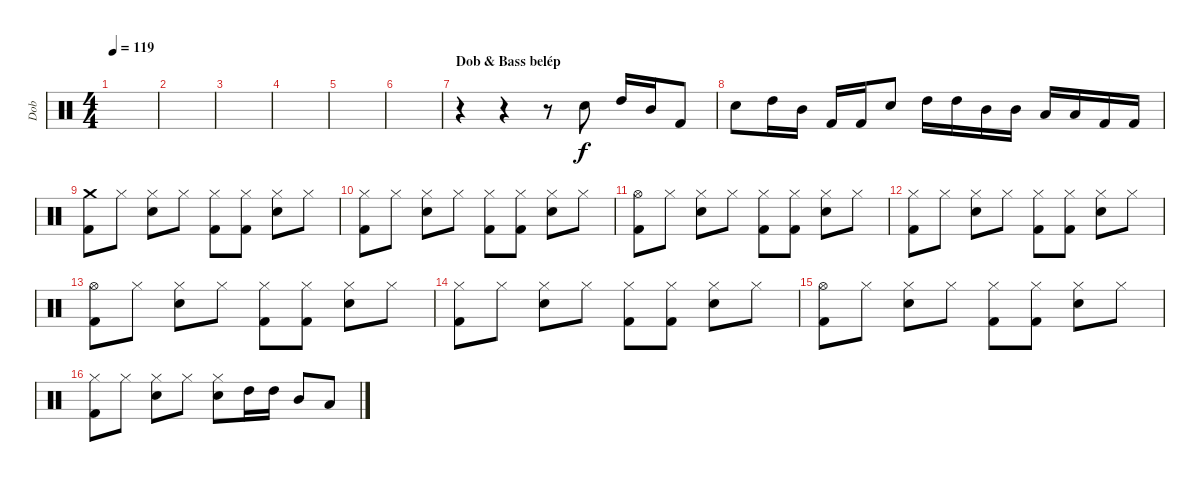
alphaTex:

\track ("Dob" "Dob") {instrument percussion}
\staff {score}
\articulation defaults
\ts (4 4)
\tempo 119
\clef neutral
\ks c
|
|
|
|
|
|
\section ("" "Dob & Bass belép")
r.4 r.4 r.8 "Snare (hit) 2".8 "High Tom (hit)".16 "Mid Tom (hit)".16 "Kick (hit) 2".8 |
"Snare (hit) 2".8 "High Tom (hit)".16 "Mid Tom (hit)".16 "Kick (hit) 2".16 "Kick (hit) 2".16 "Snare (hit) 2".8 "High Tom (hit)".16 "High Tom (hit)".16 "Mid Tom (hit)".16 "Mid Tom (hit)".16 "Low Tom (hit)".16 "Low Tom (hit)".16 "Kick (hit) 2".16 "Kick (hit) 2".16 |
("Crash medium (hit)" "Kick (hit) 2").8 "Hi-Hat (closed)".8 ("Hi-Hat (closed)" "Snare (hit) 2").8 "Hi-Hat (closed)".8 ("Hi-Hat (closed)" "Kick (hit) 2").8 ("Hi-Hat (closed)" "Kick (hit) 2").8 ("Hi-Hat (closed)" "Snare (hit) 2").8 "Hi-Hat (closed)".8 |
("Hi-Hat (closed)" "Kick (hit) 2").8 "Hi-Hat (closed)".8 ("Hi-Hat (closed)" "Snare (hit) 2").8 "Hi-Hat (closed)".8 ("Hi-Hat (closed)" "Kick (hit) 2").8 ("Hi-Hat (closed)" "Kick (hit) 2").8 ("Hi-Hat (closed)" "Snare (hit) 2").8 "Hi-Hat (closed)".8 |
("Hi-Hat (open)" "Kick (hit) 2").8 "Hi-Hat (closed)".8 ("Hi-Hat (closed)" "Snare (hit) 2").8 "Hi-Hat (closed)".8 ("Hi-Hat (closed)" "Kick (hit) 2").8 ("Hi-Hat (closed)" "Kick (hit) 2").8 ("Hi-Hat (closed)" "Snare (hit) 2").8 "Hi-Hat (closed)".8 |
("Hi-Hat (closed)" "Kick (hit) 2").8 "Hi-Hat (closed)".8 ("Hi-Hat (closed)" "Snare (hit) 2").8 "Hi-Hat (closed)".8 ("Hi-Hat (closed)" "Kick (hit) 2").8 ("Hi-Hat (closed)" "Kick (hit) 2").8 ("Hi-Hat (closed)" "Snare (hit) 2").8 "Hi-Hat (closed)".8 |
("Hi-Hat (open)" "Kick (hit) 2").8 "Hi-Hat (closed)".8 ("Hi-Hat (closed)" "Snare (hit) 2").8 "Hi-Hat (closed)".8 ("Hi-Hat (closed)" "Kick (hit) 2").8 ("Hi-Hat (closed)" "Kick (hit) 2").8 ("Hi-Hat (closed)" "Snare (hit) 2").8 "Hi-Hat (closed)".8 |
("Hi-Hat (closed)" "Kick (hit) 2").8 "Hi-Hat (closed)".8 ("Hi-Hat (closed)" "Snare (hit) 2").8 "Hi-Hat (closed)".8 ("Hi-Hat (closed)" "Kick (hit) 2").8 ("Hi-Hat (closed)" "Kick (hit) 2").8 ("Hi-Hat (closed)" "Snare (hit) 2").8 "Hi-Hat (closed)".8 |
("Hi-Hat (open)" "Kick (hit) 2").8 "Hi-Hat (closed)".8 ("Hi-Hat (closed)" "Snare (hit) 2").8 "Hi-Hat (closed)".8 ("Hi-Hat (closed)" "Kick (hit) 2").8 ("Hi-Hat (closed)" "Kick (hit) 2").8 ("Hi-Hat (closed)" "Snare (hit) 2").8 "Hi-Hat (closed)".8 |
("Hi-Hat (closed)" "Kick (hit) 2").8 "Hi-Hat (closed)".8 ("Hi-Hat (closed)" "Snare (hit) 2").8 "Hi-Hat (closed)".8 ("Hi-Hat (closed)" "Snare (hit) 2").8 "High Tom (hit)".16 "High Tom (hit)".16 "Mid Tom (hit)".8 "Low Tom (hit)".8
